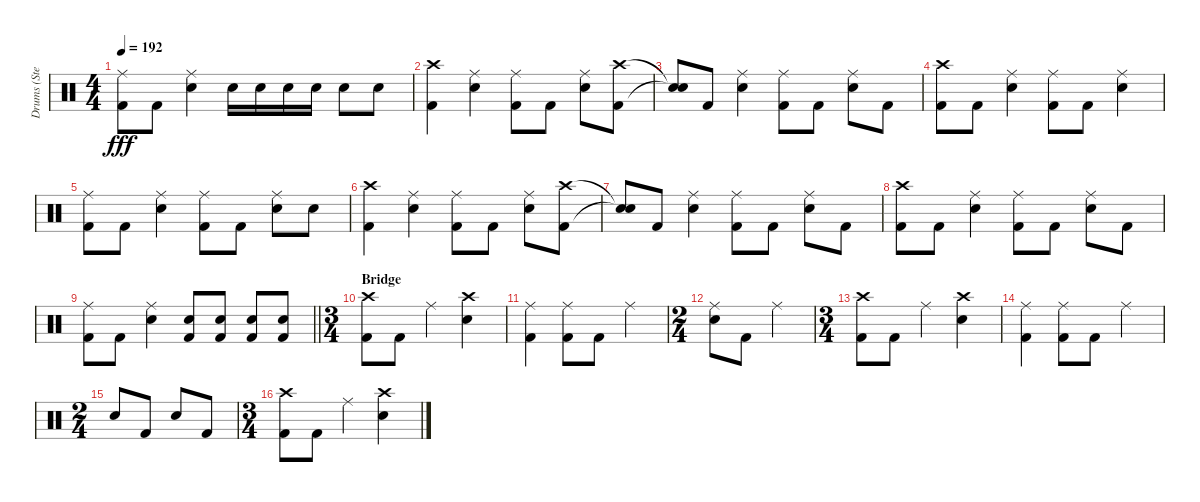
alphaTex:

\track ("Drums (Stevo32)" "Drums (Ste") {instrument percussion}
\staff {score}
\articulation defaults
\ts (4 4)
\tempo 192
\clef neutral
\ks c
("Ride (middle)" "Kick (hit) 2").8{dy fff} "Kick (hit) 2".8 ("Ride (middle)" "Electric Snare (hit)").4 "Electric Snare (hit)".16 "Electric Snare (hit)".16 "Electric Snare (hit)".16 "Electric Snare (hit)".16 "Electric Snare (hit)".8 "Electric Snare (hit)".8 |
("Crash high (hit)" "Kick (hit) 2").4 ("Ride (middle)" "Electric Snare (hit)").4 ("Ride (middle)" "Kick (hit) 2").8 "Kick (hit) 2".8 ("Ride (middle)" "Electric Snare (hit)").8 ("Crash high (hit)" "Kick (hit) 2").8 |
("Snare (hit)"{t} "Snare (hit)"{t}).8 "Kick (hit) 2".8 ("Ride (middle)" "Electric Snare (hit)").4 ("Ride (middle)" "Kick (hit) 2").8 "Kick (hit) 2".8 ("Ride (middle)" "Electric Snare (hit)").8 "Kick (hit) 2".8 |
("Crash high (hit)" "Kick (hit) 2").8 "Kick (hit) 2".8 ("Ride (middle)" "Electric Snare (hit)").4 ("Ride (middle)" "Kick (hit) 2").8 "Kick (hit) 2".8 ("Ride (middle)" "Electric Snare (hit)").4 |
("Ride (middle)" "Kick (hit) 2").8 "Kick (hit) 2".8 ("Ride (middle)" "Electric Snare (hit)").4 ("Ride (middle)" "Kick (hit) 2").8 "Kick (hit) 2".8 ("Ride (middle)" "Electric Snare (hit)").8 "Electric Snare (hit)".8 |
("Crash high (hit)" "Kick (hit) 2").4 ("Ride (middle)" "Electric Snare (hit)").4 ("Ride (middle)" "Kick (hit) 2").8 "Kick (hit) 2".8 ("Ride (middle)" "Electric Snare (hit)").8 ("Crash high (hit)" "Kick (hit) 2").8 |
("Snare (hit)"{t} "Snare (hit)"{t}).8 "Kick (hit) 2".8 ("Ride (middle)" "Electric Snare (hit)").4 ("Ride (middle)" "Kick (hit) 2").8 "Kick (hit) 2".8 ("Ride (middle)" "Electric Snare (hit)").8 "Kick (hit) 2".8 |
("Crash high (hit)" "Kick (hit) 2").8 "Kick (hit) 2".8 ("Ride (middle)" "Electric Snare (hit)").4 ("Ride (middle)" "Kick (hit) 2").8 "Kick (hit) 2".8 ("Ride (middle)" "Electric Snare (hit)").8 "Kick (hit) 2".8 |
\barLineRight lightlight
("Ride (middle)" "Kick (hit) 2").8 "Kick (hit) 2".8 ("Ride (middle)" "Electric Snare (hit)").4 ("Electric Snare (hit)" "Kick (hit) 2").8 ("Electric Snare (hit)" "Kick (hit) 2").8 ("Electric Snare (hit)" "Kick (hit) 2").8 ("Electric Snare (hit)" "Kick (hit) 2").8 |
\ts (3 4)
\section ("" "Bridge")
("Crash high (hit)" "Kick (hit) 2").8 "Kick (hit) 2".8 "Ride (middle)".4 ("Crash high (hit)" "Electric Snare (hit)").4 |
("Ride (middle)" "Kick (hit) 2").4 ("Ride (middle)" "Kick (hit) 2").8 "Kick (hit) 2".8 "Ride (middle)".4 |
\ts (2 4)
("Ride (middle)" "Electric Snare (hit)").8 "Kick (hit) 2".8 "Ride (middle)".4 |
\ts (3 4)
("Crash high (hit)" "Kick (hit) 2").8 "Kick (hit) 2".8 "Ride (middle)".4 ("Crash high (hit)" "Electric Snare (hit)").4 |
("Ride (middle)" "Kick (hit) 2").4 ("Ride (middle)" "Kick (hit) 2").8 "Kick (hit) 2".8 "Ride (middle)".4 |
\ts (2 4)
"Electric Snare (hit)".8 "Kick (hit) 2".8 "Electric Snare (hit)".8 "Kick (hit) 2".8 |
\ts (3 4)
("Crash high (hit)" "Kick (hit) 2").8 "Kick (hit) 2".8 "Ride (middle)".4 ("Crash high (hit)" "Electric Snare (hit)").4
